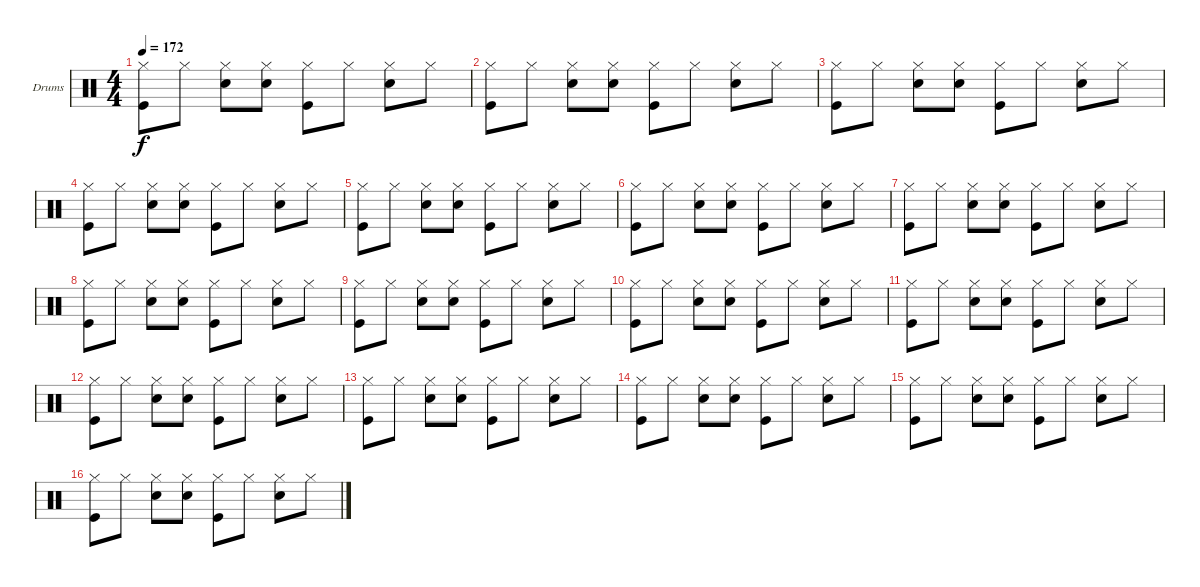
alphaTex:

\bracketExtendMode groupsimilarinstruments
\firstSystemTrackNameOrientation horizontal
\otherSystemsTrackNameOrientation horizontal
\track ("Drumkit" "Drums") {instrument percussion}
\staff {score}
\articulation defaults
\ts (4 4)
\tempo 172
\clef neutral
\ks c
("Hi-Hat (closed)" "Kick (hit)").8{dy f} "Hi-Hat (closed)".8 ("Snare (hit) 2" "Hi-Hat (closed)").8 ("Snare (hit) 2" "Hi-Hat (closed)").8 ("Hi-Hat (closed)" "Kick (hit)").8 "Hi-Hat (closed)".8 ("Snare (hit) 2" "Hi-Hat (closed)").8 "Hi-Hat (closed)".8 |
("Hi-Hat (closed)" "Kick (hit)").8 "Hi-Hat (closed)".8 ("Snare (hit) 2" "Hi-Hat (closed)").8 ("Snare (hit) 2" "Hi-Hat (closed)").8 ("Hi-Hat (closed)" "Kick (hit)").8 "Hi-Hat (closed)".8 ("Snare (hit) 2" "Hi-Hat (closed)").8 "Hi-Hat (closed)".8 |
("Hi-Hat (closed)" "Kick (hit)").8 "Hi-Hat (closed)".8 ("Snare (hit) 2" "Hi-Hat (closed)").8 ("Snare (hit) 2" "Hi-Hat (closed)").8 ("Hi-Hat (closed)" "Kick (hit)").8 "Hi-Hat (closed)".8 ("Snare (hit) 2" "Hi-Hat (closed)").8 "Hi-Hat (closed)".8 |
("Hi-Hat (closed)" "Kick (hit)").8 "Hi-Hat (closed)".8 ("Snare (hit) 2" "Hi-Hat (closed)").8 ("Snare (hit) 2" "Hi-Hat (closed)").8 ("Hi-Hat (closed)" "Kick (hit)").8 "Hi-Hat (closed)".8 ("Snare (hit) 2" "Hi-Hat (closed)").8 "Hi-Hat (closed)".8 |
("Hi-Hat (closed)" "Kick (hit)").8 "Hi-Hat (closed)".8 ("Snare (hit) 2" "Hi-Hat (closed)").8 ("Snare (hit) 2" "Hi-Hat (closed)").8 ("Hi-Hat (closed)" "Kick (hit)").8 "Hi-Hat (closed)".8 ("Snare (hit) 2" "Hi-Hat (closed)").8 "Hi-Hat (closed)".8 |
("Hi-Hat (closed)" "Kick (hit)").8 "Hi-Hat (closed)".8 ("Snare (hit) 2" "Hi-Hat (closed)").8 ("Snare (hit) 2" "Hi-Hat (closed)").8 ("Hi-Hat (closed)" "Kick (hit)").8 "Hi-Hat (closed)".8 ("Snare (hit) 2" "Hi-Hat (closed)").8 "Hi-Hat (closed)".8 |
("Hi-Hat (closed)" "Kick (hit)").8 "Hi-Hat (closed)".8 ("Snare (hit) 2" "Hi-Hat (closed)").8 ("Snare (hit) 2" "Hi-Hat (closed)").8 ("Hi-Hat (closed)" "Kick (hit)").8 "Hi-Hat (closed)".8 ("Snare (hit) 2" "Hi-Hat (closed)").8 "Hi-Hat (closed)".8 |
("Hi-Hat (closed)" "Kick (hit)").8 "Hi-Hat (closed)".8 ("Snare (hit) 2" "Hi-Hat (closed)").8 ("Snare (hit) 2" "Hi-Hat (closed)").8 ("Hi-Hat (closed)" "Kick (hit)").8 "Hi-Hat (closed)".8 ("Snare (hit) 2" "Hi-Hat (closed)").8 "Hi-Hat (closed)".8 |
("Hi-Hat (closed)" "Kick (hit)").8 "Hi-Hat (closed)".8 ("Snare (hit) 2" "Hi-Hat (closed)").8 ("Snare (hit) 2" "Hi-Hat (closed)").8 ("Hi-Hat (closed)" "Kick (hit)").8 "Hi-Hat (closed)".8 ("Snare (hit) 2" "Hi-Hat (closed)").8 "Hi-Hat (closed)".8 |
("Hi-Hat (closed)" "Kick (hit)").8 "Hi-Hat (closed)".8 ("Snare (hit) 2" "Hi-Hat (closed)").8 ("Snare (hit) 2" "Hi-Hat (closed)").8 ("Hi-Hat (closed)" "Kick (hit)").8 "Hi-Hat (closed)".8 ("Snare (hit) 2" "Hi-Hat (closed)").8 "Hi-Hat (closed)".8 |
("Hi-Hat (closed)" "Kick (hit)").8 "Hi-Hat (closed)".8 ("Snare (hit) 2" "Hi-Hat (closed)").8 ("Snare (hit) 2" "Hi-Hat (closed)").8 ("Hi-Hat (closed)" "Kick (hit)").8 "Hi-Hat (closed)".8 ("Snare (hit) 2" "Hi-Hat (closed)").8 "Hi-Hat (closed)".8 |
("Hi-Hat (closed)" "Kick (hit)").8 "Hi-Hat (closed)".8 ("Snare (hit) 2" "Hi-Hat (closed)").8 ("Snare (hit) 2" "Hi-Hat (closed)").8 ("Hi-Hat (closed)" "Kick (hit)").8 "Hi-Hat (closed)".8 ("Snare (hit) 2" "Hi-Hat (closed)").8 "Hi-Hat (closed)".8 |
("Hi-Hat (closed)" "Kick (hit)").8 "Hi-Hat (closed)".8 ("Snare (hit) 2" "Hi-Hat (closed)").8 ("Snare (hit) 2" "Hi-Hat (closed)").8 ("Hi-Hat (closed)" "Kick (hit)").8 "Hi-Hat (closed)".8 ("Snare (hit) 2" "Hi-Hat (closed)").8 "Hi-Hat (closed)".8 |
("Hi-Hat (closed)" "Kick (hit)").8 "Hi-Hat (closed)".8 ("Snare (hit) 2" "Hi-Hat (closed)").8 ("Snare (hit) 2" "Hi-Hat (closed)").8 ("Hi-Hat (closed)" "Kick (hit)").8 "Hi-Hat (closed)".8 ("Snare (hit) 2" "Hi-Hat (closed)").8 "Hi-Hat (closed)".8 |
("Hi-Hat (closed)" "Kick (hit)").8 "Hi-Hat (closed)".8 ("Snare (hit) 2" "Hi-Hat (closed)").8 ("Snare (hit) 2" "Hi-Hat (closed)").8 ("Hi-Hat (closed)" "Kick (hit)").8 "Hi-Hat (closed)".8 ("Snare (hit) 2" "Hi-Hat (closed)").8 "Hi-Hat (closed)".8 |
("Hi-Hat (closed)" "Kick (hit)").8 "Hi-Hat (closed)".8 ("Snare (hit) 2" "Hi-Hat (closed)").8 ("Snare (hit) 2" "Hi-Hat (closed)").8 ("Hi-Hat (closed)" "Kick (hit)").8 "Hi-Hat (closed)".8 ("Snare (hit) 2" "Hi-Hat (closed)").8 "Hi-Hat (closed)".8
